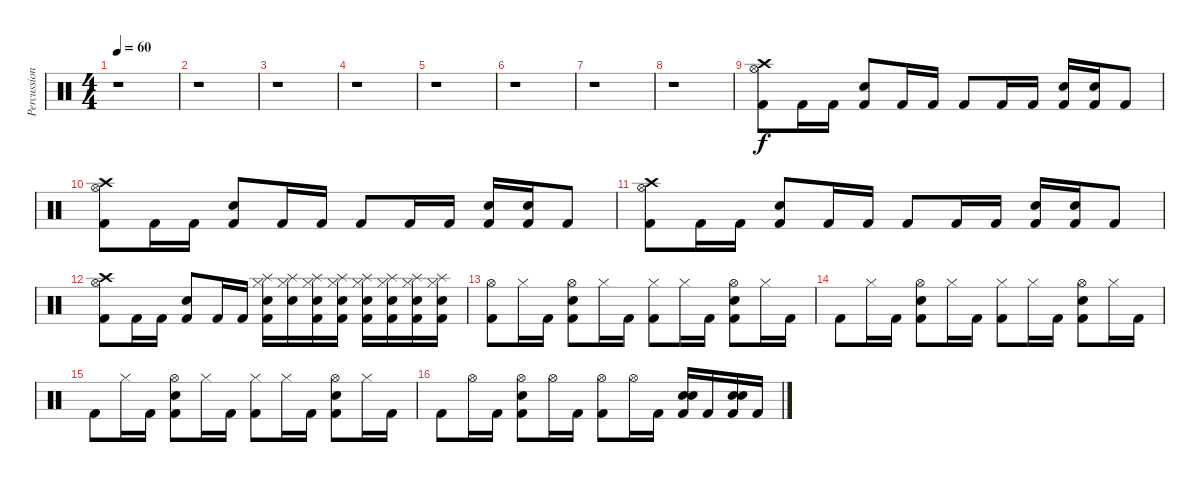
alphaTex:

\track ("Percussion" "Percussion") {instrument percussion}
\staff {score}
\articulation defaults
\ts (4 4)
\tempo 60
\clef neutral
\ks c
r.1{dy f} |
r.1 |
r.1 |
r.1 |
r.1 |
r.1 |
r.1 |
r.1 |
("Hi-Hat (open)" "Crash high (hit)" "Kick (hit) 2").8 "Kick (hit) 2".16 "Kick (hit) 2".16 ("Snare (hit) 2" "Kick (hit) 2").8 "Kick (hit) 2".16 "Kick (hit) 2".16 "Kick (hit) 2".8 "Kick (hit) 2".16 "Kick (hit) 2".16 ("Snare (hit) 2" "Kick (hit) 2").16 ("Snare (hit) 2" "Kick (hit) 2").16 "Kick (hit) 2".8 |
("Hi-Hat (open)" "Crash high (hit)" "Kick (hit) 2").8 "Kick (hit) 2".16 "Kick (hit) 2".16 ("Snare (hit) 2" "Kick (hit) 2").8 "Kick (hit) 2".16 "Kick (hit) 2".16 "Kick (hit) 2".8 "Kick (hit) 2".16 "Kick (hit) 2".16 ("Snare (hit) 2" "Kick (hit) 2").16 ("Snare (hit) 2" "Kick (hit) 2").16 "Kick (hit) 2".8 |
("Hi-Hat (open)" "Crash high (hit)" "Kick (hit) 2").8 "Kick (hit) 2".16 "Kick (hit) 2".16 ("Snare (hit) 2" "Kick (hit) 2").8 "Kick (hit) 2".16 "Kick (hit) 2".16 "Kick (hit) 2".8 "Kick (hit) 2".16 "Kick (hit) 2".16 ("Snare (hit) 2" "Kick (hit) 2").16 ("Snare (hit) 2" "Kick (hit) 2").16 "Kick (hit) 2".8 |
("Hi-Hat (open)" "Crash high (hit)" "Kick (hit) 2").8 "Kick (hit) 2".16 "Kick (hit) 2".16 ("Snare (hit) 2" "Kick (hit) 2").8 "Kick (hit) 2".16 "Kick (hit) 2".16 ("Hi-Hat (closed)" "Splash (hit)" "Snare (hit) 2" "Kick (hit) 2").16 ("Hi-Hat (closed)" "Splash (hit)" "Snare (hit) 2").16 ("Hi-Hat (closed)" "Splash (hit)" "Snare (hit) 2" "Kick (hit) 2").16 ("Hi-Hat (closed)" "Splash (hit)" "Snare (hit) 2" "Kick (hit) 2").16 ("Hi-Hat (closed)" "Splash (hit)" "Snare (hit) 2" "Kick (hit) 2").16 ("Hi-Hat (closed)" "Splash (hit)" "Snare (hit) 2" "Kick (hit) 2").16 ("Hi-Hat (closed)" "Splash (hit)" "Snare (hit) 2" "Kick (hit) 2").16 ("Hi-Hat (closed)" "Splash (hit)" "Snare (hit) 2" "Kick (hit) 2").16 |
("Hi-Hat (open)" "Kick (hit) 2").8 "Hi-Hat (closed)".16 "Kick (hit) 2".16 ("Hi-Hat (open)" "Snare (hit) 2" "Kick (hit) 2").8 "Hi-Hat (closed)".16 "Kick (hit) 2".16 ("Hi-Hat (closed)" "Kick (hit) 2").8 "Hi-Hat (closed)".16 "Kick (hit) 2".16 ("Hi-Hat (open)" "Snare (hit) 2" "Kick (hit) 2").8 "Hi-Hat (closed)".16 "Kick (hit) 2".16 |
"Kick (hit) 2".8 "Hi-Hat (closed)".16 "Kick (hit) 2".16 ("Hi-Hat (open)" "Snare (hit) 2" "Kick (hit) 2").8 "Hi-Hat (closed)".16 "Kick (hit) 2".16 ("Hi-Hat (closed)" "Kick (hit) 2").8 "Hi-Hat (closed)".16 "Kick (hit) 2".16 ("Hi-Hat (open)" "Snare (hit) 2" "Kick (hit) 2").8 "Hi-Hat (closed)".16 "Kick (hit) 2".16 |
"Kick (hit) 2".8 "Hi-Hat (closed)".16 "Kick (hit) 2".16 ("Hi-Hat (open)" "Snare (hit) 2" "Kick (hit) 2").8 "Hi-Hat (closed)".16 "Kick (hit) 2".16 ("Hi-Hat (closed)" "Kick (hit) 2").8 "Hi-Hat (closed)".16 "Kick (hit) 2".16 ("Hi-Hat (open)" "Snare (hit) 2" "Kick (hit) 2").8 "Hi-Hat (closed)".16 "Kick (hit) 2".16 |
"Kick (hit) 2".8 "Hi-Hat (open)".16 "Kick (hit) 2".16 ("Hi-Hat (open)" "Snare (hit) 2" "Kick (hit) 2").8 "Hi-Hat (open)".16 "Kick (hit) 2".16 ("Hi-Hat (open)" "Kick (hit) 2").8 "Hi-Hat (open)".16 "Kick (hit) 2".16 ("Snare (hit) 2" "Snare (hit) 2" "Kick (hit) 2").16 "Kick (hit) 2".16 ("Snare (hit) 2" "Snare (hit) 2" "Kick (hit) 2").16 "Kick (hit) 2".16
